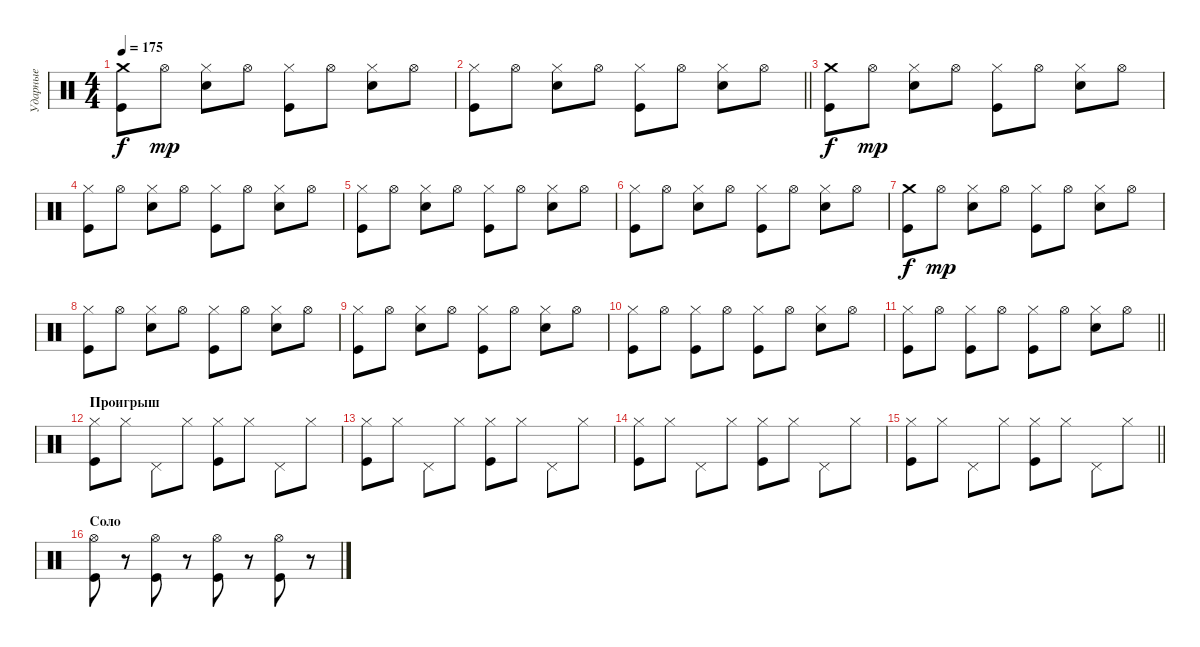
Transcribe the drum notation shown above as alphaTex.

\track ("Ударные" "Ударные") {instrument percussion}
\staff {score}
\articulation defaults
\ts (4 4)
\tempo 175
\clef neutral
\ks c
("Crash medium (hit)" "Kick (hit)").8{dy f} "Hi-Hat (open)".8{dy mp} ("Hi-Hat (closed)" "Electric Snare (hit)").8 "Hi-Hat (open)".8 ("Hi-Hat (closed)" "Kick (hit)").8 "Hi-Hat (open)".8 ("Hi-Hat (closed)" "Electric Snare (hit)").8 "Hi-Hat (open)".8 |
\barLineRight lightlight
("Hi-Hat (closed)" "Kick (hit)").8 "Hi-Hat (open)".8 ("Hi-Hat (closed)" "Electric Snare (hit)").8 "Hi-Hat (open)".8 ("Hi-Hat (closed)" "Kick (hit)").8 "Hi-Hat (open)".8 ("Hi-Hat (closed)" "Electric Snare (hit)").8 "Hi-Hat (open)".8 |
\section ("" " ")
("Crash medium (hit)" "Kick (hit)").8{dy f} "Hi-Hat (open)".8{dy mp} ("Hi-Hat (closed)" "Electric Snare (hit)").8 "Hi-Hat (open)".8 ("Hi-Hat (closed)" "Kick (hit)").8 "Hi-Hat (open)".8 ("Hi-Hat (closed)" "Electric Snare (hit)").8 "Hi-Hat (open)".8 |
("Hi-Hat (closed)" "Kick (hit)").8 "Hi-Hat (open)".8 ("Hi-Hat (closed)" "Electric Snare (hit)").8 "Hi-Hat (open)".8 ("Hi-Hat (closed)" "Kick (hit)").8 "Hi-Hat (open)".8 ("Hi-Hat (closed)" "Electric Snare (hit)").8 "Hi-Hat (open)".8 |
("Hi-Hat (closed)" "Kick (hit)").8 "Hi-Hat (open)".8 ("Hi-Hat (closed)" "Electric Snare (hit)").8 "Hi-Hat (open)".8 ("Hi-Hat (closed)" "Kick (hit)").8 "Hi-Hat (open)".8 ("Hi-Hat (closed)" "Electric Snare (hit)").8 "Hi-Hat (open)".8 |
("Hi-Hat (closed)" "Kick (hit)").8 "Hi-Hat (open)".8 ("Hi-Hat (closed)" "Electric Snare (hit)").8 "Hi-Hat (open)".8 ("Hi-Hat (closed)" "Kick (hit)").8 "Hi-Hat (open)".8 ("Hi-Hat (closed)" "Electric Snare (hit)").8 "Hi-Hat (open)".8 |
("Crash medium (hit)" "Kick (hit)").8{dy f} "Hi-Hat (open)".8{dy mp} ("Hi-Hat (closed)" "Electric Snare (hit)").8 "Hi-Hat (open)".8 ("Hi-Hat (closed)" "Kick (hit)").8 "Hi-Hat (open)".8 ("Hi-Hat (closed)" "Electric Snare (hit)").8 "Hi-Hat (open)".8 |
("Hi-Hat (closed)" "Kick (hit)").8 "Hi-Hat (open)".8 ("Hi-Hat (closed)" "Electric Snare (hit)").8 "Hi-Hat (open)".8 ("Hi-Hat (closed)" "Kick (hit)").8 "Hi-Hat (open)".8 ("Hi-Hat (closed)" "Electric Snare (hit)").8 "Hi-Hat (open)".8 |
("Hi-Hat (closed)" "Kick (hit)").8 "Hi-Hat (open)".8 ("Hi-Hat (closed)" "Electric Snare (hit)").8 "Hi-Hat (open)".8 ("Hi-Hat (closed)" "Kick (hit)").8 "Hi-Hat (open)".8 ("Hi-Hat (closed)" "Electric Snare (hit)").8 "Hi-Hat (open)".8 |
("Hi-Hat (closed)" "Kick (hit)").8 "Hi-Hat (open)".8 ("Hi-Hat (closed)" "Kick (hit)").8 "Hi-Hat (open)".8 ("Hi-Hat (closed)" "Kick (hit)").8 "Hi-Hat (open)".8 ("Hi-Hat (closed)" "Electric Snare (hit)").8 "Hi-Hat (open)".8 |
\barLineRight lightlight
("Hi-Hat (closed)" "Kick (hit)").8 "Hi-Hat (open)".8 ("Hi-Hat (closed)" "Kick (hit)").8 "Hi-Hat (open)".8 ("Hi-Hat (closed)" "Kick (hit)").8 "Hi-Hat (open)".8 ("Hi-Hat (closed)" "Electric Snare (hit)").8 "Hi-Hat (open)".8 |
\section ("" "Проигрыш")
("Hi-Hat (closed)" "Kick (hit)").8 "Hi-Hat (closed)".8 "Pedal Hi-Hat (hit)".8 "Hi-Hat (closed)".8 ("Hi-Hat (closed)" "Kick (hit)").8 "Hi-Hat (closed)".8 "Pedal Hi-Hat (hit)".8 "Hi-Hat (closed)".8 |
("Hi-Hat (closed)" "Kick (hit)").8 "Hi-Hat (closed)".8 "Pedal Hi-Hat (hit)".8 "Hi-Hat (closed)".8 ("Hi-Hat (closed)" "Kick (hit)").8 "Hi-Hat (closed)".8 "Pedal Hi-Hat (hit)".8 "Hi-Hat (closed)".8 |
("Hi-Hat (closed)" "Kick (hit)").8 "Hi-Hat (closed)".8 "Pedal Hi-Hat (hit)".8 "Hi-Hat (closed)".8 ("Hi-Hat (closed)" "Kick (hit)").8 "Hi-Hat (closed)".8 "Pedal Hi-Hat (hit)".8 "Hi-Hat (closed)".8 |
\barLineRight lightlight
("Hi-Hat (closed)" "Kick (hit)").8 "Hi-Hat (closed)".8 "Pedal Hi-Hat (hit)".8 "Hi-Hat (closed)".8 ("Hi-Hat (closed)" "Kick (hit)").8 "Hi-Hat (closed)".8 "Pedal Hi-Hat (hit)".8 "Hi-Hat (closed)".8 |
\section ("" "Соло")
("Hi-Hat (open)" "Kick (hit)").8 r.8 ("Hi-Hat (open)" "Kick (hit)").8 r.8 ("Hi-Hat (open)" "Kick (hit)").8 r.8 ("Hi-Hat (open)" "Kick (hit)").8 r.8
